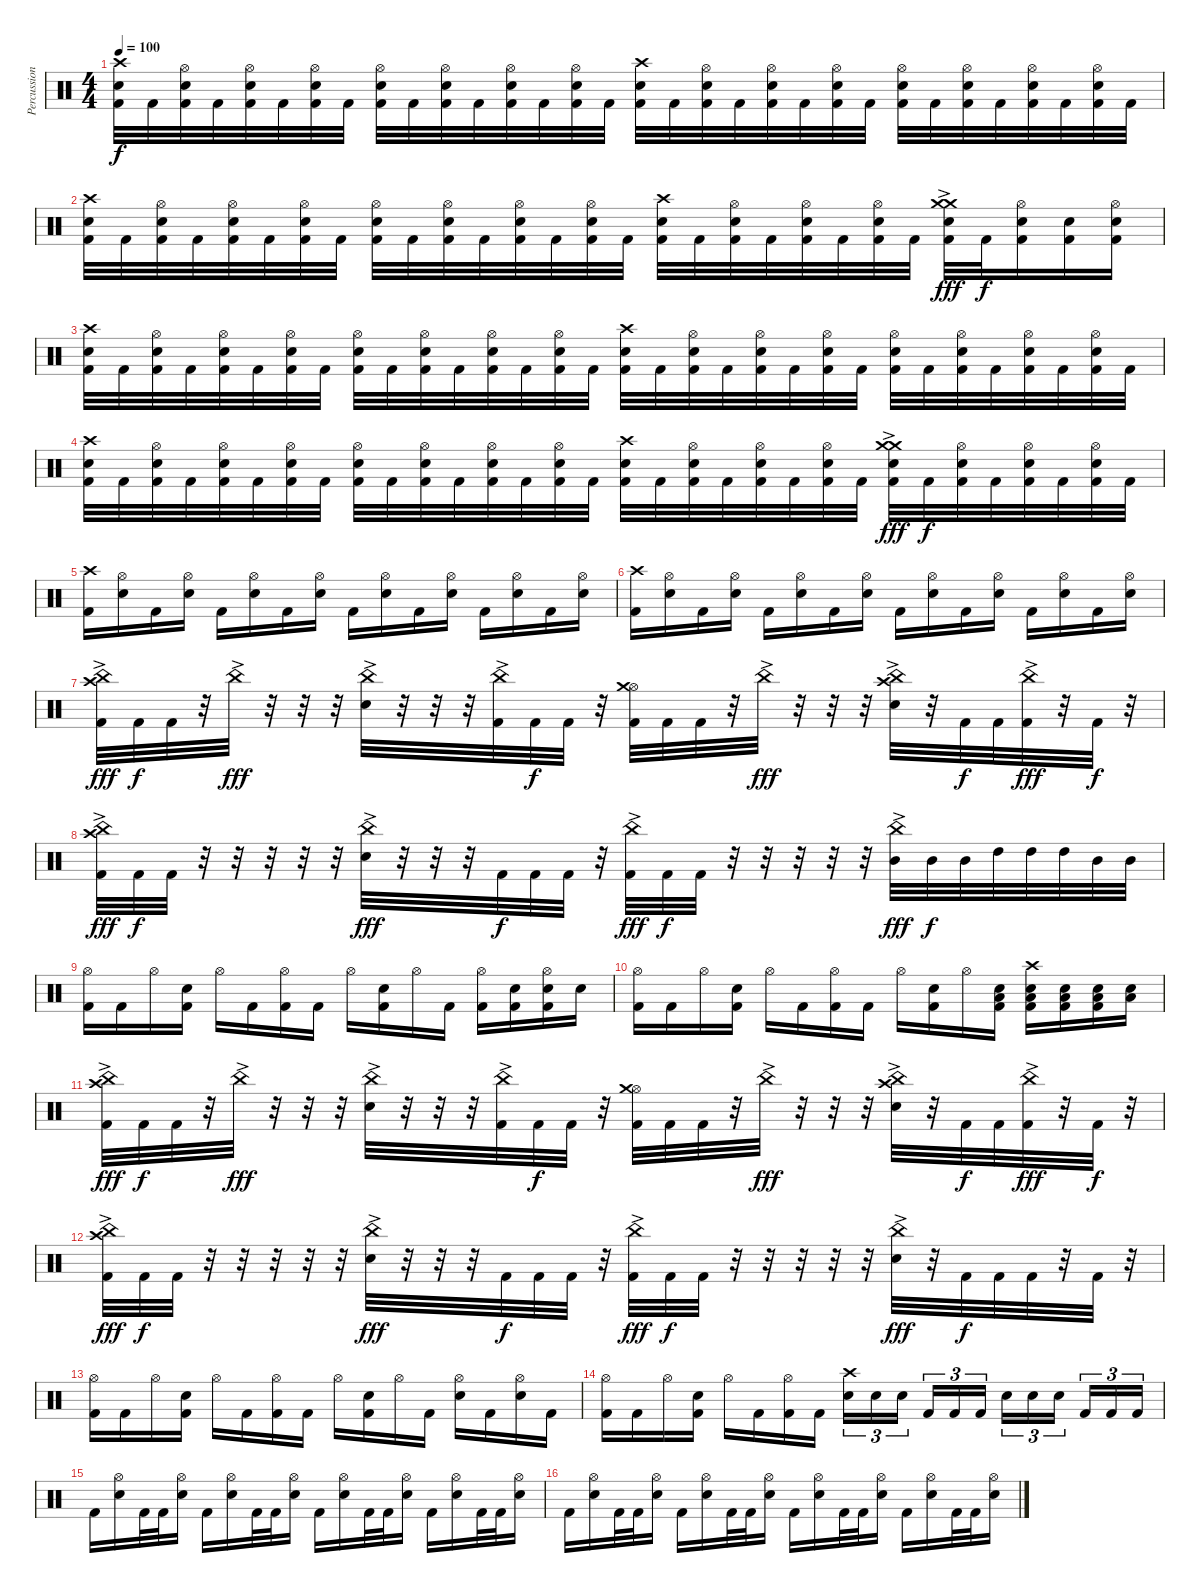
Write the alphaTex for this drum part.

\track ("Percussion" "Percussion") {instrument percussion}
\staff {score}
\articulation defaults
\ts (4 4)
\tempo 100
\clef neutral
\ks c
("Crash high (hit)" "Electric Snare (hit)" "Kick (hit) 2").32{dy f} "Kick (hit) 2".32 ("Hi-Hat (open)" "Electric Snare (hit)" "Kick (hit) 2").32 "Kick (hit) 2".32 ("Hi-Hat (open)" "Electric Snare (hit)" "Kick (hit) 2").32 "Kick (hit) 2".32 ("Hi-Hat (open)" "Electric Snare (hit)" "Kick (hit) 2").32 "Kick (hit) 2".32 ("Hi-Hat (open)" "Electric Snare (hit)" "Kick (hit) 2").32 "Kick (hit) 2".32 ("Hi-Hat (open)" "Electric Snare (hit)" "Kick (hit) 2").32 "Kick (hit) 2".32 ("Hi-Hat (open)" "Electric Snare (hit)" "Kick (hit) 2").32 "Kick (hit) 2".32 ("Hi-Hat (open)" "Electric Snare (hit)" "Kick (hit) 2").32 "Kick (hit) 2".32 ("Crash high (hit)" "Electric Snare (hit)" "Kick (hit) 2").32 "Kick (hit) 2".32 ("Hi-Hat (open)" "Electric Snare (hit)" "Kick (hit) 2").32 "Kick (hit) 2".32 ("Hi-Hat (open)" "Electric Snare (hit)" "Kick (hit) 2").32 "Kick (hit) 2".32 ("Hi-Hat (open)" "Electric Snare (hit)" "Kick (hit) 2").32 "Kick (hit) 2".32 ("Hi-Hat (open)" "Electric Snare (hit)" "Kick (hit) 2").32 "Kick (hit) 2".32 ("Hi-Hat (open)" "Electric Snare (hit)" "Kick (hit) 2").32 "Kick (hit) 2".32 ("Hi-Hat (open)" "Electric Snare (hit)" "Kick (hit) 2").32 "Kick (hit) 2".32 ("Hi-Hat (open)" "Electric Snare (hit)" "Kick (hit) 2").32 "Kick (hit) 2".32 |
("Crash high (hit)" "Electric Snare (hit)" "Kick (hit) 2").32 "Kick (hit) 2".32 ("Hi-Hat (open)" "Electric Snare (hit)" "Kick (hit) 2").32 "Kick (hit) 2".32 ("Hi-Hat (open)" "Electric Snare (hit)" "Kick (hit) 2").32 "Kick (hit) 2".32 ("Hi-Hat (open)" "Electric Snare (hit)" "Kick (hit) 2").32 "Kick (hit) 2".32 ("Hi-Hat (open)" "Electric Snare (hit)" "Kick (hit) 2").32 "Kick (hit) 2".32 ("Hi-Hat (open)" "Electric Snare (hit)" "Kick (hit) 2").32 "Kick (hit) 2".32 ("Hi-Hat (open)" "Electric Snare (hit)" "Kick (hit) 2").32 "Kick (hit) 2".32 ("Hi-Hat (open)" "Electric Snare (hit)" "Kick (hit) 2").32 "Kick (hit) 2".32 ("Crash high (hit)" "Electric Snare (hit)" "Kick (hit) 2").32 "Kick (hit) 2".32 ("Hi-Hat (open)" "Electric Snare (hit)" "Kick (hit) 2").32 "Kick (hit) 2".32 ("Hi-Hat (open)" "Electric Snare (hit)" "Kick (hit) 2").32 "Kick (hit) 2".32 ("Hi-Hat (open)" "Electric Snare (hit)" "Kick (hit) 2").32 "Kick (hit) 2".32 ("Crash medium (hit)"{ac} "Crash medium (hit)"{ac} "Electric Snare (hit)" "Kick (hit) 2").32{dy fff} "Kick (hit) 2".32{dy f} ("Hi-Hat (open)" "Electric Snare (hit)" "Kick (hit) 2").16 ("Electric Snare (hit)" "Kick (hit) 2").16 ("Hi-Hat (open)" "Electric Snare (hit)" "Kick (hit) 2").16 |
("Crash high (hit)" "Electric Snare (hit)" "Kick (hit) 2").32 "Kick (hit) 2".32 ("Hi-Hat (open)" "Electric Snare (hit)" "Kick (hit) 2").32 "Kick (hit) 2".32 ("Hi-Hat (open)" "Electric Snare (hit)" "Kick (hit) 2").32 "Kick (hit) 2".32 ("Hi-Hat (open)" "Electric Snare (hit)" "Kick (hit) 2").32 "Kick (hit) 2".32 ("Hi-Hat (open)" "Electric Snare (hit)" "Kick (hit) 2").32 "Kick (hit) 2".32 ("Hi-Hat (open)" "Electric Snare (hit)" "Kick (hit) 2").32 "Kick (hit) 2".32 ("Hi-Hat (open)" "Electric Snare (hit)" "Kick (hit) 2").32 "Kick (hit) 2".32 ("Hi-Hat (open)" "Electric Snare (hit)" "Kick (hit) 2").32 "Kick (hit) 2".32 ("Crash high (hit)" "Electric Snare (hit)" "Kick (hit) 2").32 "Kick (hit) 2".32 ("Hi-Hat (open)" "Electric Snare (hit)" "Kick (hit) 2").32 "Kick (hit) 2".32 ("Hi-Hat (open)" "Electric Snare (hit)" "Kick (hit) 2").32 "Kick (hit) 2".32 ("Hi-Hat (open)" "Electric Snare (hit)" "Kick (hit) 2").32 "Kick (hit) 2".32 ("Hi-Hat (open)" "Electric Snare (hit)" "Kick (hit) 2").32 "Kick (hit) 2".32 ("Hi-Hat (open)" "Electric Snare (hit)" "Kick (hit) 2").32 "Kick (hit) 2".32 ("Hi-Hat (open)" "Electric Snare (hit)" "Kick (hit) 2").32 "Kick (hit) 2".32 ("Hi-Hat (open)" "Electric Snare (hit)" "Kick (hit) 2").32 "Kick (hit) 2".32 |
("Crash high (hit)" "Electric Snare (hit)" "Kick (hit) 2").32 "Kick (hit) 2".32 ("Hi-Hat (open)" "Electric Snare (hit)" "Kick (hit) 2").32 "Kick (hit) 2".32 ("Hi-Hat (open)" "Electric Snare (hit)" "Kick (hit) 2").32 "Kick (hit) 2".32 ("Hi-Hat (open)" "Electric Snare (hit)" "Kick (hit) 2").32 "Kick (hit) 2".32 ("Hi-Hat (open)" "Electric Snare (hit)" "Kick (hit) 2").32 "Kick (hit) 2".32 ("Hi-Hat (open)" "Electric Snare (hit)" "Kick (hit) 2").32 "Kick (hit) 2".32 ("Hi-Hat (open)" "Electric Snare (hit)" "Kick (hit) 2").32 "Kick (hit) 2".32 ("Hi-Hat (open)" "Electric Snare (hit)" "Kick (hit) 2").32 "Kick (hit) 2".32 ("Crash high (hit)" "Electric Snare (hit)" "Kick (hit) 2").32 "Kick (hit) 2".32 ("Hi-Hat (open)" "Electric Snare (hit)" "Kick (hit) 2").32 "Kick (hit) 2".32 ("Hi-Hat (open)" "Electric Snare (hit)" "Kick (hit) 2").32 "Kick (hit) 2".32 ("Hi-Hat (open)" "Electric Snare (hit)" "Kick (hit) 2").32 "Kick (hit) 2".32 ("Crash medium (hit)"{ac} "Crash medium (hit)"{ac} "Electric Snare (hit)" "Kick (hit) 2").32{dy fff} "Kick (hit) 2".32{dy f} ("Hi-Hat (open)" "Electric Snare (hit)" "Kick (hit) 2").32 "Kick (hit) 2".32 ("Hi-Hat (open)" "Electric Snare (hit)" "Kick (hit) 2").32 "Kick (hit) 2".32 ("Hi-Hat (open)" "Electric Snare (hit)" "Kick (hit) 2").32 "Kick (hit) 2".32 |
("Crash high (hit)" "Kick (hit) 2").16 ("Hi-Hat (open)" "Electric Snare (hit)").16 "Kick (hit) 2".16 ("Hi-Hat (open)" "Electric Snare (hit)").16 "Kick (hit) 2".16 ("Hi-Hat (open)" "Electric Snare (hit)").16 "Kick (hit) 2".16 ("Hi-Hat (open)" "Electric Snare (hit)").16 "Kick (hit) 2".16 ("Hi-Hat (open)" "Electric Snare (hit)").16 "Kick (hit) 2".16 ("Hi-Hat (open)" "Electric Snare (hit)").16 "Kick (hit) 2".16 ("Hi-Hat (open)" "Electric Snare (hit)").16 "Kick (hit) 2".16 ("Hi-Hat (open)" "Electric Snare (hit)").16 |
("Crash high (hit)" "Kick (hit) 2").16 ("Hi-Hat (open)" "Electric Snare (hit)").16 "Kick (hit) 2".16 ("Hi-Hat (open)" "Electric Snare (hit)").16 "Kick (hit) 2".16 ("Hi-Hat (open)" "Electric Snare (hit)").16 "Kick (hit) 2".16 ("Hi-Hat (open)" "Electric Snare (hit)").16 "Kick (hit) 2".16 ("Hi-Hat (open)" "Electric Snare (hit)").16 "Kick (hit) 2".16 ("Hi-Hat (open)" "Electric Snare (hit)").16 "Kick (hit) 2".16 ("Hi-Hat (open)" "Electric Snare (hit)").16 "Kick (hit) 2".16 ("Hi-Hat (open)" "Electric Snare (hit)").16 |
("China (hit)"{ac} "Crash high (hit)" "Kick (hit) 2").32{dy fff} "Kick (hit) 2".32{dy f} "Kick (hit) 2".32 r.32 "China (hit)"{ac}.32{dy fff} r.32 r.32 r.32 ("China (hit)"{ac} "Electric Snare (hit)").32 r.32 r.32 r.32 ("China (hit)"{ac} "Kick (hit) 2").32 "Kick (hit) 2".32{dy f} "Kick (hit) 2".32 r.32 ("Hi-Hat (open)" "Crash medium (hit)" "Kick (hit) 2").32 "Kick (hit) 2".32 "Kick (hit) 2".32 r.32 "China (hit)"{ac}.32{dy fff} r.32 r.32 r.32 ("China (hit)"{ac} "Crash high (hit)" "Electric Snare (hit)").32 r.32 "Kick (hit) 2".32{dy f} "Kick (hit) 2".32 ("China (hit)"{ac} "Kick (hit) 2").32{dy fff} r.32 "Kick (hit) 2".32{dy f} r.32 |
("China (hit)"{ac} "Crash high (hit)" "Kick (hit) 2").32{dy fff} "Kick (hit) 2".32{dy f} "Kick (hit) 2".32 r.32 r.32 r.32 r.32 r.32 ("China (hit)"{ac} "Electric Snare (hit)").32{dy fff} r.32 r.32 r.32 "Kick (hit) 2".32{dy f} "Kick (hit) 2".32 "Kick (hit) 2".32 r.32 ("China (hit)"{ac} "Kick (hit) 2").32{dy fff} "Kick (hit) 2".32{dy f} "Kick (hit) 2".32 r.32 r.32 r.32 r.32 r.32 ("China (hit)"{ac} "Mid Tom (hit)").32{dy fff} "Mid Tom (hit)".32{dy f} "Mid Tom (hit)".32 "High Tom (hit)".32 "High Tom (hit)".32 "High Tom (hit)".32 "Mid Tom (hit)".32 "Mid Tom (hit)".32 |
("Hi-Hat (open)" "Kick (hit) 2").16 "Kick (hit) 2".16 "Hi-Hat (open)".16 ("Electric Snare (hit)" "Kick (hit) 2").16 "Hi-Hat (open)".16 "Kick (hit) 2".16 ("Hi-Hat (open)" "Kick (hit) 2").16 "Kick (hit) 2".16 "Hi-Hat (open)".16 ("Electric Snare (hit)" "Kick (hit) 2").16 "Hi-Hat (open)".16 "Kick (hit) 2".16 ("Hi-Hat (open)" "Kick (hit) 2").16 ("Electric Snare (hit)" "Kick (hit) 2").16 ("Hi-Hat (open)" "Electric Snare (hit)" "Kick (hit) 2").16 "Electric Snare (hit)".16 |
("Hi-Hat (open)" "Kick (hit) 2").16 "Kick (hit) 2".16 "Hi-Hat (open)".16 ("Electric Snare (hit)" "Kick (hit) 2").16 "Hi-Hat (open)".16 "Kick (hit) 2".16 ("Hi-Hat (open)" "Kick (hit) 2").16 "Kick (hit) 2".16 "Hi-Hat (open)".16 ("Electric Snare (hit)" "Kick (hit) 2").16 "Hi-Hat (open)".16 ("Low Tom (hit)" "Electric Snare (hit)" "Kick (hit) 2").16 ("Crash high (hit)" "Low Tom (hit)" "Electric Snare (hit)" "Kick (hit) 2").16 ("Low Tom (hit)" "Electric Snare (hit)" "Kick (hit) 2").16 ("Low Tom (hit)" "Electric Snare (hit)" "Kick (hit) 2").16 ("Low Tom (hit)" "Electric Snare (hit)").16 |
("China (hit)"{ac} "Crash high (hit)" "Kick (hit) 2").32{dy fff} "Kick (hit) 2".32{dy f} "Kick (hit) 2".32 r.32 "China (hit)"{ac}.32{dy fff} r.32 r.32 r.32 ("China (hit)"{ac} "Electric Snare (hit)").32 r.32 r.32 r.32 ("China (hit)"{ac} "Kick (hit) 2").32 "Kick (hit) 2".32{dy f} "Kick (hit) 2".32 r.32 ("Hi-Hat (open)" "Crash medium (hit)" "Kick (hit) 2").32 "Kick (hit) 2".32 "Kick (hit) 2".32 r.32 "China (hit)"{ac}.32{dy fff} r.32 r.32 r.32 ("China (hit)"{ac} "Crash high (hit)" "Electric Snare (hit)").32 r.32 "Kick (hit) 2".32{dy f} "Kick (hit) 2".32 ("China (hit)"{ac} "Kick (hit) 2").32{dy fff} r.32 "Kick (hit) 2".32{dy f} r.32 |
("China (hit)"{ac} "Crash high (hit)" "Kick (hit) 2").32{dy fff} "Kick (hit) 2".32{dy f} "Kick (hit) 2".32 r.32 r.32 r.32 r.32 r.32 ("China (hit)"{ac} "Electric Snare (hit)").32{dy fff} r.32 r.32 r.32 "Kick (hit) 2".32{dy f} "Kick (hit) 2".32 "Kick (hit) 2".32 r.32 ("China (hit)"{ac} "Kick (hit) 2").32{dy fff} "Kick (hit) 2".32{dy f} "Kick (hit) 2".32 r.32 r.32 r.32 r.32 r.32 ("China (hit)"{ac} "Electric Snare (hit)").32{dy fff} r.32 "Kick (hit) 2".32{dy f} "Kick (hit) 2".32 "Kick (hit) 2".32 r.32 "Kick (hit) 2".32 r.32 |
("Hi-Hat (open)" "Kick (hit) 2").16 "Kick (hit) 2".16 "Hi-Hat (open)".16 ("Electric Snare (hit)" "Kick (hit) 2").16 "Hi-Hat (open)".16 "Kick (hit) 2".16 ("Hi-Hat (open)" "Kick (hit) 2").16 "Kick (hit) 2".16 "Hi-Hat (open)".16 ("Electric Snare (hit)" "Kick (hit) 2").16 "Hi-Hat (open)".16 "Kick (hit) 2".16 ("Hi-Hat (open)" "Electric Snare (hit)").16 "Kick (hit) 2".16 ("Hi-Hat (open)" "Electric Snare (hit)").16 "Kick (hit) 2".16 |
("Hi-Hat (open)" "Kick (hit) 2").16 "Kick (hit) 2".16 "Hi-Hat (open)".16 ("Electric Snare (hit)" "Kick (hit) 2").16 "Hi-Hat (open)".16 "Kick (hit) 2".16 ("Hi-Hat (open)" "Kick (hit) 2").16 "Kick (hit) 2".16 ("Crash high (hit)" "Electric Snare (hit)").16{tu (3 2)} "Electric Snare (hit)".16{tu (3 2)} "Electric Snare (hit)".16{tu (3 2) beam splitsecondary} "Kick (hit) 2".16{tu (3 2)} "Kick (hit) 2".16{tu (3 2)} "Kick (hit) 2".16{tu (3 2)} "Electric Snare (hit)".16{tu (3 2)} "Electric Snare (hit)".16{tu (3 2)} "Electric Snare (hit)".16{tu (3 2) beam splitsecondary} "Kick (hit) 2".16{tu (3 2)} "Kick (hit) 2".16{tu (3 2)} "Kick (hit) 2".16{tu (3 2)} |
"Kick (hit) 2".16 ("Hi-Hat (open)" "Electric Snare (hit)").16 "Kick (hit) 2".32 "Kick (hit) 2".32 ("Hi-Hat (open)" "Electric Snare (hit)").16 "Kick (hit) 2".16 ("Hi-Hat (open)" "Electric Snare (hit)").16 "Kick (hit) 2".32 "Kick (hit) 2".32 ("Hi-Hat (open)" "Electric Snare (hit)").16 "Kick (hit) 2".16 ("Hi-Hat (open)" "Electric Snare (hit)").16 "Kick (hit) 2".32 "Kick (hit) 2".32 ("Hi-Hat (open)" "Electric Snare (hit)").16 "Kick (hit) 2".16 ("Hi-Hat (open)" "Electric Snare (hit)").16 "Kick (hit) 2".32 "Kick (hit) 2".32 ("Hi-Hat (open)" "Electric Snare (hit)").16 |
"Kick (hit) 2".16 ("Hi-Hat (open)" "Electric Snare (hit)").16 "Kick (hit) 2".32 "Kick (hit) 2".32 ("Hi-Hat (open)" "Electric Snare (hit)").16 "Kick (hit) 2".16 ("Hi-Hat (open)" "Electric Snare (hit)").16 "Kick (hit) 2".32 "Kick (hit) 2".32 ("Hi-Hat (open)" "Electric Snare (hit)").16 "Kick (hit) 2".16 ("Hi-Hat (open)" "Electric Snare (hit)").16 "Kick (hit) 2".32 "Kick (hit) 2".32 ("Hi-Hat (open)" "Electric Snare (hit)").16 "Kick (hit) 2".16 ("Hi-Hat (open)" "Electric Snare (hit)").16 "Kick (hit) 2".32 "Kick (hit) 2".32 ("Hi-Hat (open)" "Electric Snare (hit)").16
